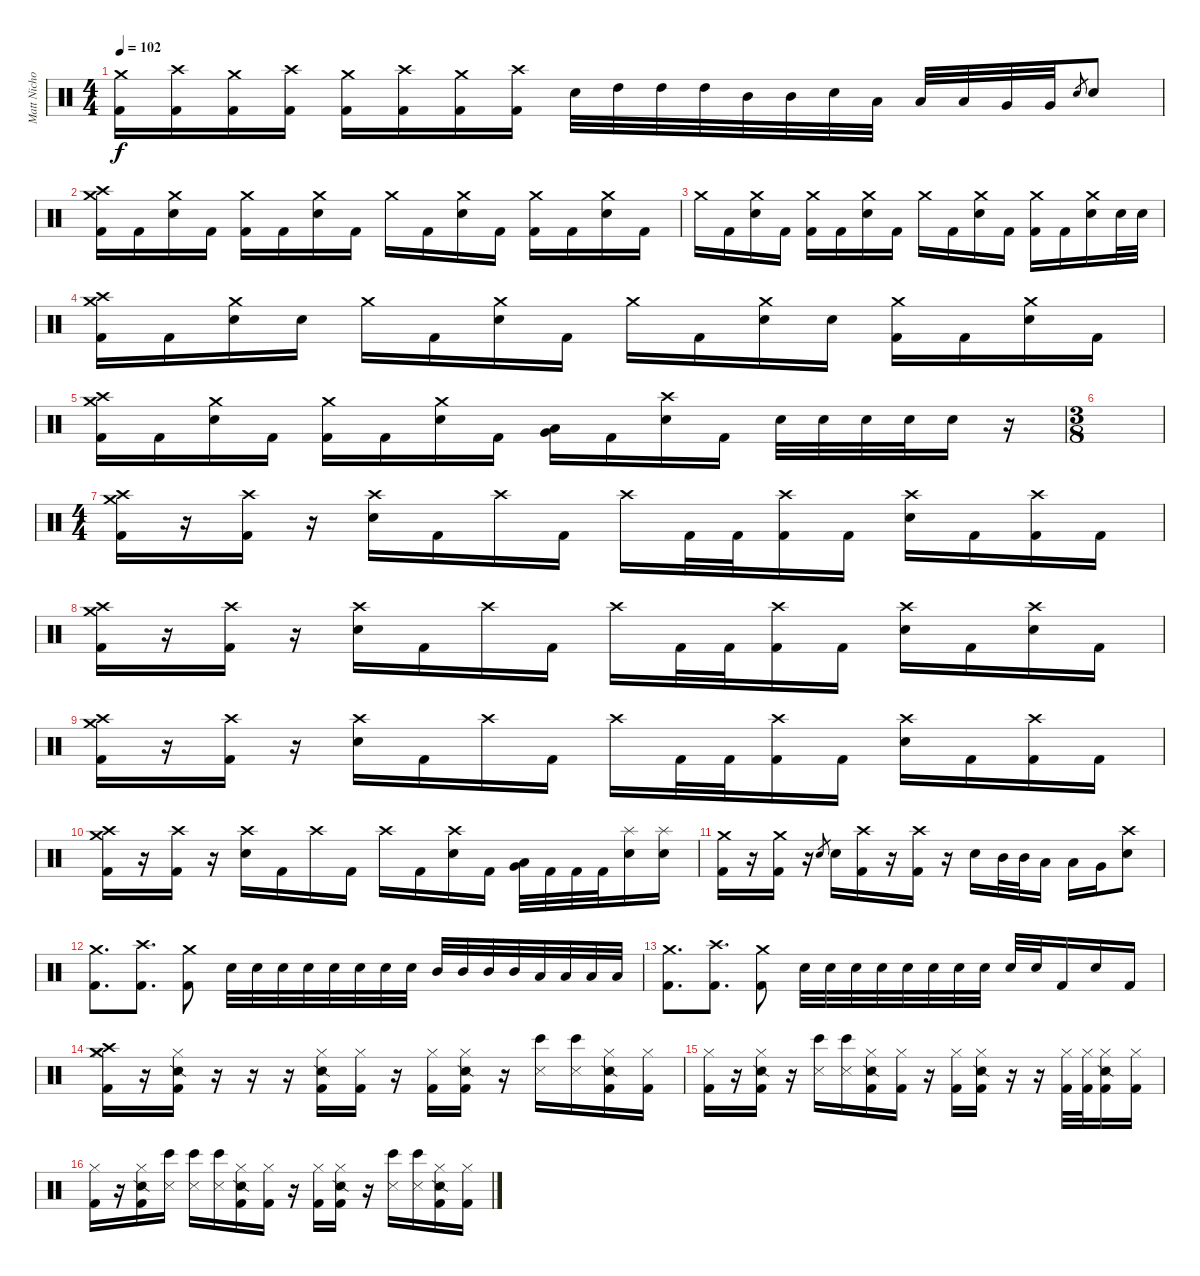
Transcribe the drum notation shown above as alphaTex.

\track ("Matt Nichols" "Matt Nicho") {instrument percussion}
\staff {score}
\articulation defaults
\ts (4 4)
\tempo 102
\clef neutral
\ks c
("Crash medium (hit)" "Kick (hit) 2").16{dy f} ("Crash high (hit)" "Kick (hit) 2").16 ("Crash medium (hit)" "Kick (hit) 2").16 ("Crash high (hit)" "Kick (hit) 2").16 ("Crash medium (hit)" "Kick (hit) 2").16 ("Crash high (hit)" "Kick (hit) 2").16 ("Crash medium (hit)" "Kick (hit) 2").16 ("Crash high (hit)" "Kick (hit) 2").16 "Electric Snare (hit)".32 "High Tom (hit)".32 "High Tom (hit)".32 "High Tom (hit)".32 "Mid Tom (hit)".32 "Mid Tom (hit)".32 "Electric Snare (hit)".32 "Low Tom (hit)".32 "Low Tom (hit)".32 "Low Tom (hit)".32 "Very Low Tom (hit)".32 "Very Low Tom (hit)".32 "Electric Snare (hit)".8{gr} "Electric Snare (hit)".8 |
("Crash high (hit)" "Crash medium (hit)" "Kick (hit) 2").16 "Kick (hit) 2".16 ("Crash medium (hit)" "Electric Snare (hit)").16 "Kick (hit) 2".16 ("Crash medium (hit)" "Kick (hit) 2").16 "Kick (hit) 2".16 ("Crash medium (hit)" "Electric Snare (hit)").16 "Kick (hit) 2".16 "Crash medium (hit)".16 "Kick (hit) 2".16 ("Crash medium (hit)" "Electric Snare (hit)").16 "Kick (hit) 2".16 ("Crash medium (hit)" "Kick (hit) 2").16 "Kick (hit) 2".16 ("Crash medium (hit)" "Electric Snare (hit)").16 "Kick (hit) 2".16 |
"Crash medium (hit)".16 "Kick (hit) 2".16 ("Crash medium (hit)" "Electric Snare (hit)").16 "Kick (hit) 2".16 ("Crash medium (hit)" "Kick (hit) 2").16 "Kick (hit) 2".16 ("Crash medium (hit)" "Electric Snare (hit)").16 "Kick (hit) 2".16 "Crash medium (hit)".16 "Kick (hit) 2".16 ("Crash medium (hit)" "Electric Snare (hit)").16 "Kick (hit) 2".16 ("Crash medium (hit)" "Kick (hit) 2").16 "Kick (hit) 2".16 ("Crash medium (hit)" "Electric Snare (hit)").16 "Electric Snare (hit)".32 "Electric Snare (hit)".32 |
("Crash high (hit)" "Crash medium (hit)" "Kick (hit) 2").16 "Kick (hit) 2".16 ("Crash medium (hit)" "Electric Snare (hit)").16 "Electric Snare (hit)".16 "Crash medium (hit)".16 "Kick (hit) 2".16 ("Crash medium (hit)" "Electric Snare (hit)").16 "Kick (hit) 2".16 "Crash medium (hit)".16 "Kick (hit) 2".16 ("Crash medium (hit)" "Electric Snare (hit)").16 "Electric Snare (hit)".16 ("Crash medium (hit)" "Kick (hit) 2").16 "Kick (hit) 2".16 ("Crash medium (hit)" "Electric Snare (hit)").16 "Kick (hit) 2".16 |
("Crash high (hit)" "Crash medium (hit)" "Kick (hit) 2").16 "Kick (hit) 2".16 ("Crash medium (hit)" "Electric Snare (hit)").16 "Kick (hit) 2".16 ("Crash medium (hit)" "Kick (hit) 2").16 "Kick (hit) 2".16 ("Crash medium (hit)" "Electric Snare (hit)").16 "Kick (hit) 2".16 ("Very Low Tom (hit)" "Low Tom (hit)").16 "Kick (hit) 2".16 ("Crash high (hit)" "Electric Snare (hit)").16 "Kick (hit) 2".16 "Electric Snare (hit)".32 "Electric Snare (hit)".32 "Electric Snare (hit)".32 "Electric Snare (hit)".32 "Electric Snare (hit)".16 r.16 |
\ts (3 8)
|
\ts (4 4)
("Crash high (hit)" "Crash medium (hit)" "Kick (hit) 2").16 r.16 ("Crash high (hit)" "Kick (hit) 2").16 r.16 ("Crash high (hit)" "Electric Snare (hit)").16 "Kick (hit) 2".16 "Crash high (hit)".16 "Kick (hit) 2".16 "Crash high (hit)".16 "Kick (hit) 2".32 "Kick (hit) 2".32 ("Crash high (hit)" "Kick (hit) 2").16 "Kick (hit) 2".16 ("Crash high (hit)" "Electric Snare (hit)").16 "Kick (hit) 2".16 ("Crash high (hit)" "Kick (hit) 2").16 "Kick (hit) 2".16 |
("Crash high (hit)" "Crash medium (hit)" "Kick (hit) 2").16 r.16 ("Crash high (hit)" "Kick (hit) 2").16 r.16 ("Crash high (hit)" "Electric Snare (hit)").16 "Kick (hit) 2".16 "Crash high (hit)".16 "Kick (hit) 2".16 "Crash high (hit)".16 "Kick (hit) 2".32 "Kick (hit) 2".32 ("Crash high (hit)" "Kick (hit) 2").16 "Kick (hit) 2".16 ("Crash high (hit)" "Electric Snare (hit)").16 "Kick (hit) 2".16 ("Crash high (hit)" "Electric Snare (hit)").16 "Kick (hit) 2".16 |
("Crash high (hit)" "Crash medium (hit)" "Kick (hit) 2").16 r.16 ("Crash high (hit)" "Kick (hit) 2").16 r.16 ("Crash high (hit)" "Electric Snare (hit)").16 "Kick (hit) 2".16 "Crash high (hit)".16 "Kick (hit) 2".16 "Crash high (hit)".16 "Kick (hit) 2".32 "Kick (hit) 2".32 ("Crash high (hit)" "Kick (hit) 2").16 "Kick (hit) 2".16 ("Crash high (hit)" "Electric Snare (hit)").16 "Kick (hit) 2".16 ("Crash high (hit)" "Kick (hit) 2").16 "Kick (hit) 2".16 |
("Crash high (hit)" "Crash medium (hit)" "Kick (hit) 2").16 r.16 ("Crash high (hit)" "Kick (hit) 2").16 r.16 ("Crash high (hit)" "Electric Snare (hit)").16 "Kick (hit) 2".16 "Crash high (hit)".16 "Kick (hit) 2".16 "Crash high (hit)".16 "Kick (hit) 2".16 ("Crash high (hit)" "Electric Snare (hit)").16 "Kick (hit) 2".16 ("Very Low Tom (hit)" "Low Tom (hit)").32 "Kick (hit) 2".32 "Kick (hit) 2".32 "Kick (hit) 2".32 ("Splash (hit)" "Electric Snare (hit)").16 ("Splash (hit)" "Electric Snare (hit)").16 |
("Crash medium (hit)" "Kick (hit) 2").16 r.16 ("Crash medium (hit)" "Kick (hit) 2").16 r.16 "Electric Snare (hit)".8{gr} "Electric Snare (hit)".16 ("Crash high (hit)" "Kick (hit) 2").16 r.16 ("Crash high (hit)" "Kick (hit) 2").16 r.16 "Electric Snare (hit)".16 "Mid Tom (hit)".32 "Mid Tom (hit)".32 "Low Tom (hit)".16 "Low Tom (hit)".16 "Very Low Tom (hit)".16 ("Crash high (hit)" "Electric Snare (hit)").8 |
("Crash medium (hit)" "Kick (hit) 2").8{d} ("Crash high (hit)" "Kick (hit) 2").8{d} ("Crash medium (hit)" "Kick (hit) 2").8 "Electric Snare (hit)".32 "Electric Snare (hit)".32 "Electric Snare (hit)".32 "Electric Snare (hit)".32 "Electric Snare (hit)".32 "Electric Snare (hit)".32 "Electric Snare (hit)".32 "Electric Snare (hit)".32 "Mid Tom (hit)".32 "Mid Tom (hit)".32 "Mid Tom (hit)".32 "Mid Tom (hit)".32 "Low Tom (hit)".32 "Low Tom (hit)".32 "Low Tom (hit)".32 "Low Tom (hit)".32 |
("Crash medium (hit)" "Kick (hit) 2").8{d} ("Crash high (hit)" "Kick (hit) 2").8{d} ("Crash medium (hit)" "Kick (hit) 2").8 "Electric Snare (hit)".32 "Electric Snare (hit)".32 "Electric Snare (hit)".32 "Electric Snare (hit)".32 "Electric Snare (hit)".32 "Electric Snare (hit)".32 "Electric Snare (hit)".32 "Electric Snare (hit)".32 "Electric Snare (hit)".32 "Electric Snare (hit)".32 "Kick (hit) 2".16 "Electric Snare (hit)".16 "Kick (hit) 2".16 |
("Crash medium (hit)" "Crash high (hit)" "Kick (hit) 2" "Hi-Hat (closed)").16 r.16 ("Snare (side stick) 2" "Kick (hit) 2" "Hi-Hat (closed)").16 r.16 r.16 r.16 ("Snare (side stick) 2" "Kick (hit) 2" "Hi-Hat (closed)").16 ("Kick (hit) 2" "Hi-Hat (closed)").16 r.16 ("Kick (hit) 2" "Hi-Hat (closed)").16 ("Snare (side stick) 2" "Kick (hit) 2" "Hi-Hat (closed)").16 r.16 ("Bongo High (hit)" "Snare (side stick) 3").16 ("Bongo High (hit)" "Snare (side stick) 3").16 ("Snare (side stick) 2" "Kick (hit) 2" "Hi-Hat (closed)").16 ("Kick (hit) 2" "Hi-Hat (closed)").16 |
("Kick (hit) 2" "Hi-Hat (closed)").16 r.16 ("Snare (side stick) 2" "Kick (hit) 2" "Hi-Hat (closed)").16 r.16 ("Bongo High (hit)" "Snare (side stick) 3").16 ("Bongo High (hit)" "Snare (side stick) 3").16 ("Snare (side stick) 2" "Kick (hit) 2" "Hi-Hat (closed)").16 ("Kick (hit) 2" "Hi-Hat (closed)").16 r.16 ("Kick (hit) 2" "Hi-Hat (closed)").16 ("Snare (side stick) 2" "Kick (hit) 2" "Hi-Hat (closed)").16 r.16 r.16 ("Kick (hit) 2" "Hi-Hat (closed)").32 ("Kick (hit) 2" "Hi-Hat (closed)").32 ("Snare (side stick) 2" "Kick (hit) 2" "Hi-Hat (closed)").16 ("Kick (hit) 2" "Hi-Hat (closed)").16 |
("Kick (hit) 2" "Hi-Hat (closed)").16 r.16 ("Snare (side stick) 2" "Kick (hit) 2" "Hi-Hat (closed)").16 ("Snare (side stick) 3" "Bongo High (hit)").16 ("Snare (side stick) 3" "Bongo High (hit)").16 ("Snare (side stick) 3" "Bongo High (hit)").16 ("Snare (side stick) 2" "Kick (hit) 2" "Hi-Hat (closed)").16 ("Kick (hit) 2" "Hi-Hat (closed)").16 r.16 ("Kick (hit) 2" "Hi-Hat (closed)").16 ("Snare (side stick) 2" "Kick (hit) 2" "Hi-Hat (closed)").16 r.16 ("Bongo High (hit)" "Snare (side stick) 3").16 ("Bongo High (hit)" "Snare (side stick) 3").16 ("Snare (side stick) 2" "Kick (hit) 2" "Hi-Hat (closed)").16 ("Kick (hit) 2" "Hi-Hat (closed)").16
